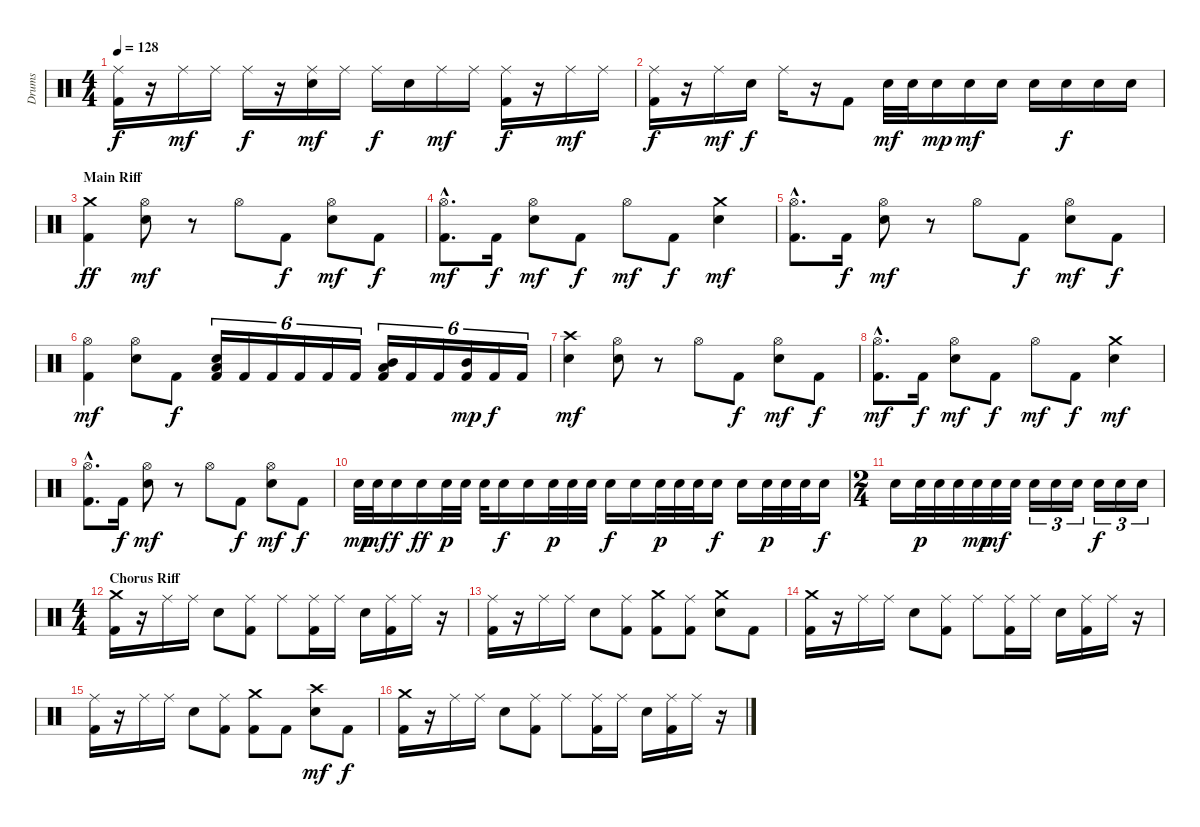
\track ("Drums" "Drums") {instrument percussion}
\staff {score}
\articulation defaults
\ts (4 4)
\tempo 128
\clef neutral
\ks c
("Ride (middle)" "Kick (hit) 2").16{dy f} r.16 "Ride (middle)".16{dy mf} "Ride (middle)".16 "Ride (middle)".16{dy f} r.16 ("Ride (middle)" "Electric Snare (hit)").16{dy mf} "Ride (middle)".16 "Ride (middle)".16{dy f} "Electric Snare (hit)".16 "Ride (middle)".16{dy mf} "Ride (middle)".16 ("Ride (middle)" "Kick (hit) 2").16{dy f} r.16 "Ride (middle)".16{dy mf} "Ride (middle)".16 |
("Ride (middle)" "Kick (hit) 2").16{dy f} r.16 "Ride (middle)".16{dy mf} "Electric Snare (hit)".16{dy f} "Ride (middle)".16 r.16 "Kick (hit) 2".8 "Electric Snare (hit)".32{dy mf} "Electric Snare (hit)".32 "Electric Snare (hit)".16{dy mp} "Electric Snare (hit)".16{dy mf} "Electric Snare (hit)".16 "Electric Snare (hit)".16 "Electric Snare (hit)".16{dy f} "Electric Snare (hit)".16 "Electric Snare (hit)".16 |
\section ("" "Main Riff")
("Crash medium (hit)" "Kick (hit) 2").4{dy ff} ("Hi-Hat (open)" "Electric Snare (hit)").8{dy mf} r.8 "Hi-Hat (open)".8 "Kick (hit) 2".8{dy f} ("Hi-Hat (open)" "Electric Snare (hit)").8{dy mf} "Kick (hit) 2".8{dy f} |
("Hi-Hat (open)"{hac} "Kick (hit) 2"{hac}).8{d dy mf} "Kick (hit) 2".16{dy f} ("Hi-Hat (open)" "Electric Snare (hit)").8{dy mf} "Kick (hit) 2".8{dy f} "Hi-Hat (open)".8{dy mf} "Kick (hit) 2".8{dy f} ("Crash medium (hit)" "Electric Snare (hit)").4{dy mf} |
("Hi-Hat (open)"{hac} "Kick (hit) 2"{hac}).8{d} "Kick (hit) 2".16{dy f} ("Hi-Hat (open)" "Electric Snare (hit)").8{dy mf} r.8 "Hi-Hat (open)".8 "Kick (hit) 2".8{dy f} ("Hi-Hat (open)" "Electric Snare (hit)").8{dy mf} "Kick (hit) 2".8{dy f} |
("Hi-Hat (open)" "Kick (hit) 2").4{dy mf} ("Hi-Hat (open)" "Electric Snare (hit)").8 "Kick (hit) 2".8{dy f} ("Electric Snare (hit)" "Low Floor Tom (hit)" "Kick (hit) 2").16{tu (6 4)} "Kick (hit) 2".16{tu (6 4)} "Kick (hit) 2".16{tu (6 4)} "Kick (hit) 2".16{tu (6 4)} "Kick (hit) 2".16{tu (6 4)} "Kick (hit) 2".16{tu (6 4)} ("Mid Tom (hit)" "Low Floor Tom (hit)" "Kick (hit) 2").16{tu (6 4)} "Kick (hit) 2".16{tu (6 4)} "Kick (hit) 2".16{tu (6 4)} ("Mid Tom (hit)" "Kick (hit) 2").16{tu (6 4) dy mp} "Kick (hit) 2".16{tu (6 4) dy f} "Kick (hit) 2".16{tu (6 4)} |
("Crash high (hit)" "Electric Snare (hit)").4{dy mf} ("Hi-Hat (open)" "Electric Snare (hit)").8 r.8 "Hi-Hat (open)".8 "Kick (hit) 2".8{dy f} ("Hi-Hat (open)" "Electric Snare (hit)").8{dy mf} "Kick (hit) 2".8{dy f} |
("Hi-Hat (open)"{hac} "Kick (hit) 2"{hac}).8{d dy mf} "Kick (hit) 2".16{dy f} ("Hi-Hat (open)" "Electric Snare (hit)").8{dy mf} "Kick (hit) 2".8{dy f} "Hi-Hat (open)".8{dy mf} "Kick (hit) 2".8{dy f} ("Crash medium (hit)" "Electric Snare (hit)").4{dy mf} |
("Hi-Hat (open)"{hac} "Kick (hit) 2"{hac}).8{d} "Kick (hit) 2".16{dy f} ("Hi-Hat (open)" "Electric Snare (hit)").8{dy mf} r.8 "Hi-Hat (open)".8 "Kick (hit) 2".8{dy f} ("Hi-Hat (open)" "Electric Snare (hit)").8{dy mf} "Kick (hit) 2".8{dy f} |
"Electric Snare (hit)".32{dy mp} "Electric Snare (hit)".32{dy mf} "Electric Snare (hit)".16{dy f} "Electric Snare (hit)".16{dy ff} "Electric Snare (hit)".32{dy p} "Electric Snare (hit)".32 "Electric Snare (hit)".32 "Electric Snare (hit)".16{dy f} "Electric Snare (hit)".16 "Electric Snare (hit)".32{dy p} "Electric Snare (hit)".32 "Electric Snare (hit)".32 "Electric Snare (hit)".16{dy f} "Electric Snare (hit)".16 "Electric Snare (hit)".32{dy p} "Electric Snare (hit)".32 "Electric Snare (hit)".32 "Electric Snare (hit)".16{dy f} "Electric Snare (hit)".16 "Electric Snare (hit)".32{dy p} "Electric Snare (hit)".32 "Electric Snare (hit)".32 "Electric Snare (hit)".16{dy f} |
\ts (2 4)
"Electric Snare (hit)".16 "Electric Snare (hit)".32{dy p} "Electric Snare (hit)".32 "Electric Snare (hit)".32 "Electric Snare (hit)".32{dy mp} "Electric Snare (hit)".32{dy mf} "Electric Snare (hit)".32 "Electric Snare (hit)".16{tu (3 2)} "Electric Snare (hit)".16{tu (3 2)} "Electric Snare (hit)".16{tu (3 2)} "Electric Snare (hit)".16{tu (3 2) dy f} "Electric Snare (hit)".16{tu (3 2)} "Electric Snare (hit)".16{tu (3 2)} |
\ts (4 4)
\section ("" "Chorus Riff")
("Crash medium (hit)" "Kick (hit) 2").16 r.16 "Ride (middle)".16 "Ride (middle)".16 "Electric Snare (hit)".8 ("Ride (middle)" "Kick (hit) 2").8 "Ride (middle)".8 ("Ride (middle)" "Kick (hit) 2").16 "Ride (middle)".16 "Electric Snare (hit)".16 ("Ride (middle)" "Kick (hit) 2").16 "Ride (middle)".16 r.16 |
("Ride (middle)" "Kick (hit) 2").16 r.16 "Ride (middle)".16 "Ride (middle)".16 "Electric Snare (hit)".8 ("Ride (middle)" "Kick (hit) 2").8 ("Crash medium (hit)" "Kick (hit) 2").8 ("Ride (middle)" "Kick (hit) 2").8 ("Crash medium (hit)" "Electric Snare (hit)").8 "Kick (hit) 2".8 |
("Crash medium (hit)" "Kick (hit) 2").16 r.16 "Ride (middle)".16 "Ride (middle)".16 "Electric Snare (hit)".8 ("Ride (middle)" "Kick (hit) 2").8 "Ride (middle)".8 ("Ride (middle)" "Kick (hit) 2").16 "Ride (middle)".16 "Electric Snare (hit)".16 ("Ride (middle)" "Kick (hit) 2").16 "Ride (middle)".16 r.16 |
("Ride (middle)" "Kick (hit) 2").16 r.16 "Ride (middle)".16 "Ride (middle)".16 "Electric Snare (hit)".8 ("Ride (middle)" "Kick (hit) 2").8 ("Crash medium (hit)" "Kick (hit) 2").8 "Kick (hit) 2".8 ("Crash high (hit)" "Electric Snare (hit)").8{dy mf} "Kick (hit) 2".8{dy f} |
("Crash medium (hit)" "Kick (hit) 2").16 r.16 "Ride (middle)".16 "Ride (middle)".16 "Electric Snare (hit)".8 ("Ride (middle)" "Kick (hit) 2").8 "Ride (middle)".8 ("Ride (middle)" "Kick (hit) 2").16 "Ride (middle)".16 "Electric Snare (hit)".16 ("Ride (middle)" "Kick (hit) 2").16 "Ride (middle)".16 r.16
